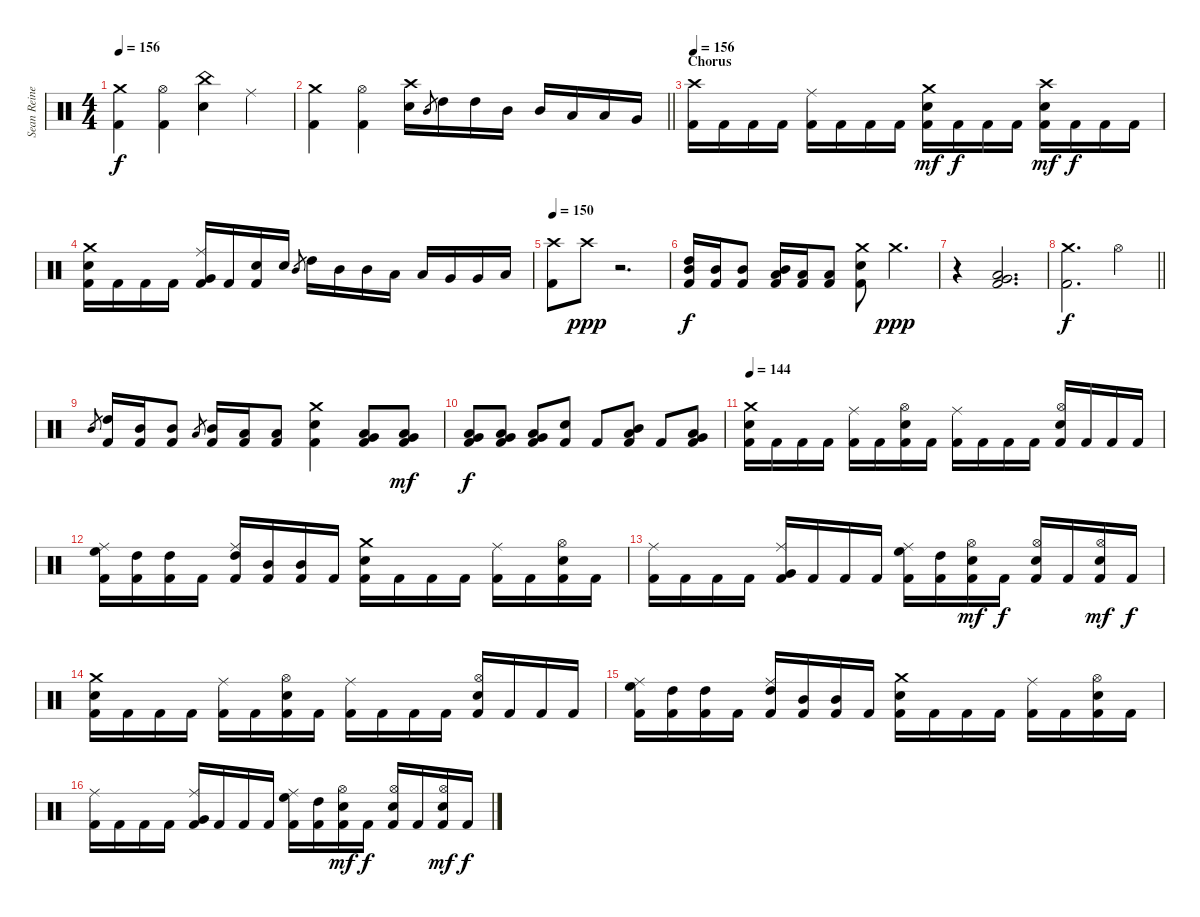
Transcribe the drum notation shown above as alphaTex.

\track ("Sean Reinert" "Sean Reine") {instrument percussion}
\staff {score}
\articulation defaults
\ts (4 4)
\tempo 156
\clef neutral
\ks c
("Crash medium (hit)" "Kick (hit) 2").4{dy f} ("Hi-Hat (open)" "Kick (hit) 2").4 ("China (hit)" "Snare (hit) 2").4 "Ride (middle)".4 |
\barLineRight lightlight
("Crash medium (hit)" "Kick (hit) 2").4 ("Hi-Hat (open)" "Kick (hit) 2").4 ("Crash high (hit)" "Snare (hit) 2").16 "Mid Tom (hit)".8{gr} "High Tom (hit)".16 "High Tom (hit)".16 "Mid Tom (hit)".16 "Mid Tom (hit)".16 "Low Tom (hit)".16 "Low Tom (hit)".16 "Very Low Tom (hit)".16 |
\section ("" "Chorus")
\tempo 156
("Crash high (hit)" "Kick (hit) 2").16 "Kick (hit) 2".16 "Kick (hit) 2".16 "Kick (hit) 2".16 ("Ride (middle)" "Kick (hit) 2").16 "Kick (hit) 2".16 "Kick (hit) 2".16 "Kick (hit) 2".16 ("Crash medium (hit)" "Snare (hit) 2" "Kick (hit) 2").16{dy mf} "Kick (hit) 2".16{dy f} "Kick (hit) 2".16 "Kick (hit) 2".16 ("Crash high (hit)" "Snare (hit) 2" "Kick (hit) 2").16{dy mf} "Kick (hit) 2".16{dy f} "Kick (hit) 2".16 "Kick (hit) 2".16 |
("Crash medium (hit)" "Snare (hit) 2" "Kick (hit) 2").16 "Kick (hit) 2".16 "Kick (hit) 2".16 "Kick (hit) 2".16 ("Ride (middle)" "Very Low Tom (hit)" "Kick (hit) 2").16 "Kick (hit) 2".16 ("Snare (hit) 2" "Kick (hit) 2").16 "Snare (hit) 2".16 "Mid Tom (hit)".8{gr} "High Tom (hit)".16 "Mid Tom (hit)".16 "Mid Tom (hit)".16 "Low Tom (hit)".16 "Low Tom (hit)".16 "Very Low Tom (hit)".16 "Very Low Tom (hit)".16 "Low Floor Tom (hit)".16 |
\tempo 150
("Crash high (hit)" "Kick (hit) 2").8 "Crash high (hit)".8{dy ppp} r.2{d} |
("Mid Tom (hit)" "High Tom (hit)" "Kick (hit) 2").16{dy f} ("Mid Tom (hit)" "Kick (hit) 2").16 ("Mid Tom (hit)" "Kick (hit) 2").8 ("Low Tom (hit)" "Mid Tom (hit)" "Kick (hit) 2").16 ("Low Tom (hit)" "Kick (hit) 2").16 ("Low Tom (hit)" "Kick (hit) 2").8 ("Crash medium (hit)" "Snare (hit) 2" "Kick (hit) 2").8 "Crash medium (hit)".4{d dy ppp} |
r.4 ("Very Low Tom (hit)" "Low Floor Tom (hit)" "Kick (hit) 2").2{d} |
\barLineRight lightlight
("Crash medium (hit)" "Kick (hit) 2").2{d dy f} "Hi-Hat (open)".4 |
"Mid Tom (hit)".8{gr} ("High Tom (hit)" "Kick (hit) 2").16 ("Mid Tom (hit)" "Kick (hit) 2").16 ("Mid Tom (hit)" "Kick (hit) 2").8 "Low Tom (hit)".8{gr} ("Mid Tom (hit)" "Kick (hit) 2").16 ("Low Tom (hit)" "Kick (hit) 2").16 ("Low Tom (hit)" "Kick (hit) 2").8 ("Crash medium (hit)" "Snare (hit) 2" "Kick (hit) 2").4 ("Low Floor Tom (hit)" "Very Low Tom (hit)" "Kick (hit) 2").8 ("Low Floor Tom (hit)" "Very Low Tom (hit)" "Kick (hit) 2").8{dy mf} |
("Low Floor Tom (hit)" "Very Low Tom (hit)" "Kick (hit) 2").8{dy f} ("Low Floor Tom (hit)" "Very Low Tom (hit)" "Kick (hit) 2").8 ("Low Floor Tom (hit)" "Very Low Tom (hit)" "Kick (hit) 2").8 ("Snare (hit) 2" "Kick (hit) 2").8 "Kick (hit) 2".8 ("Low Tom (hit)" "Mid Tom (hit)" "Kick (hit) 2").8 "Kick (hit) 2".8 ("Very Low Tom (hit)" "Low Tom (hit)" "Kick (hit) 2").8 |
\tempo 144
("Crash medium (hit)" "Snare (hit) 2" "Kick (hit) 2").16 "Kick (hit) 2".16 "Kick (hit) 2".16 "Kick (hit) 2".16 ("Ride (middle)" "Kick (hit) 2").16 "Kick (hit) 2".16 ("Hi-Hat (open)" "Snare (hit) 2" "Kick (hit) 2").16 "Kick (hit) 2".16 ("Ride (middle)" "Kick (hit) 2").16 "Kick (hit) 2".16 "Kick (hit) 2".16 "Kick (hit) 2".16 ("Hi-Hat (open)" "Snare (hit) 2" "Kick (hit) 2").16 "Kick (hit) 2".16 "Kick (hit) 2".16 "Kick (hit) 2".16 |
("Ride (middle)" "High Floor Tom (hit)" "Kick (hit) 2").16 ("High Tom (hit)" "Kick (hit) 2").16 ("High Tom (hit)" "Kick (hit) 2").16 "Kick (hit) 2".16 ("Ride (middle)" "High Tom (hit)" "Kick (hit) 2").16 ("Mid Tom (hit)" "Kick (hit) 2").16 ("Mid Tom (hit)" "Kick (hit) 2").16 "Kick (hit) 2".16 ("Crash medium (hit)" "Snare (hit) 2" "Kick (hit) 2").16 "Kick (hit) 2".16 "Kick (hit) 2".16 "Kick (hit) 2".16 ("Ride (middle)" "Kick (hit) 2").16 "Kick (hit) 2".16 ("Hi-Hat (open)" "Snare (hit) 2" "Kick (hit) 2").16 "Kick (hit) 2".16 |
("Ride (middle)" "Kick (hit) 2").16 "Kick (hit) 2".16 "Kick (hit) 2".16 "Kick (hit) 2".16 ("Ride (middle)" "Very Low Tom (hit)" "Kick (hit) 2").16 "Kick (hit) 2".16 "Kick (hit) 2".16 "Kick (hit) 2".16 ("Ride (middle)" "High Floor Tom (hit)" "Kick (hit) 2").16 ("High Tom (hit)" "Kick (hit) 2").16 ("Hi-Hat (open)" "Snare (hit) 2" "Kick (hit) 2").16{dy mf} "Kick (hit) 2".16{dy f} ("Hi-Hat (open)" "Snare (hit) 2" "Kick (hit) 2").16 "Kick (hit) 2".16 ("Hi-Hat (open)" "Snare (hit) 2" "Kick (hit) 2").16{dy mf} "Kick (hit) 2".16{dy f} |
("Crash medium (hit)" "Snare (hit) 2" "Kick (hit) 2").16 "Kick (hit) 2".16 "Kick (hit) 2".16 "Kick (hit) 2".16 ("Ride (middle)" "Kick (hit) 2").16 "Kick (hit) 2".16 ("Hi-Hat (open)" "Snare (hit) 2" "Kick (hit) 2").16 "Kick (hit) 2".16 ("Ride (middle)" "Kick (hit) 2").16 "Kick (hit) 2".16 "Kick (hit) 2".16 "Kick (hit) 2".16 ("Hi-Hat (open)" "Snare (hit) 2" "Kick (hit) 2").16 "Kick (hit) 2".16 "Kick (hit) 2".16 "Kick (hit) 2".16 |
("Ride (middle)" "High Floor Tom (hit)" "Kick (hit) 2").16 ("High Tom (hit)" "Kick (hit) 2").16 ("High Tom (hit)" "Kick (hit) 2").16 "Kick (hit) 2".16 ("Ride (middle)" "High Tom (hit)" "Kick (hit) 2").16 ("Mid Tom (hit)" "Kick (hit) 2").16 ("Mid Tom (hit)" "Kick (hit) 2").16 "Kick (hit) 2".16 ("Crash medium (hit)" "Snare (hit) 2" "Kick (hit) 2").16 "Kick (hit) 2".16 "Kick (hit) 2".16 "Kick (hit) 2".16 ("Ride (middle)" "Kick (hit) 2").16 "Kick (hit) 2".16 ("Hi-Hat (open)" "Snare (hit) 2" "Kick (hit) 2").16 "Kick (hit) 2".16 |
("Ride (middle)" "Kick (hit) 2").16 "Kick (hit) 2".16 "Kick (hit) 2".16 "Kick (hit) 2".16 ("Ride (middle)" "Very Low Tom (hit)" "Kick (hit) 2").16 "Kick (hit) 2".16 "Kick (hit) 2".16 "Kick (hit) 2".16 ("Ride (middle)" "High Floor Tom (hit)" "Kick (hit) 2").16 ("High Tom (hit)" "Kick (hit) 2").16 ("Hi-Hat (open)" "Snare (hit) 2" "Kick (hit) 2").16{dy mf} "Kick (hit) 2".16{dy f} ("Hi-Hat (open)" "Snare (hit) 2" "Kick (hit) 2").16 "Kick (hit) 2".16 ("Hi-Hat (open)" "Snare (hit) 2" "Kick (hit) 2").16{dy mf} "Kick (hit) 2".16{dy f}
